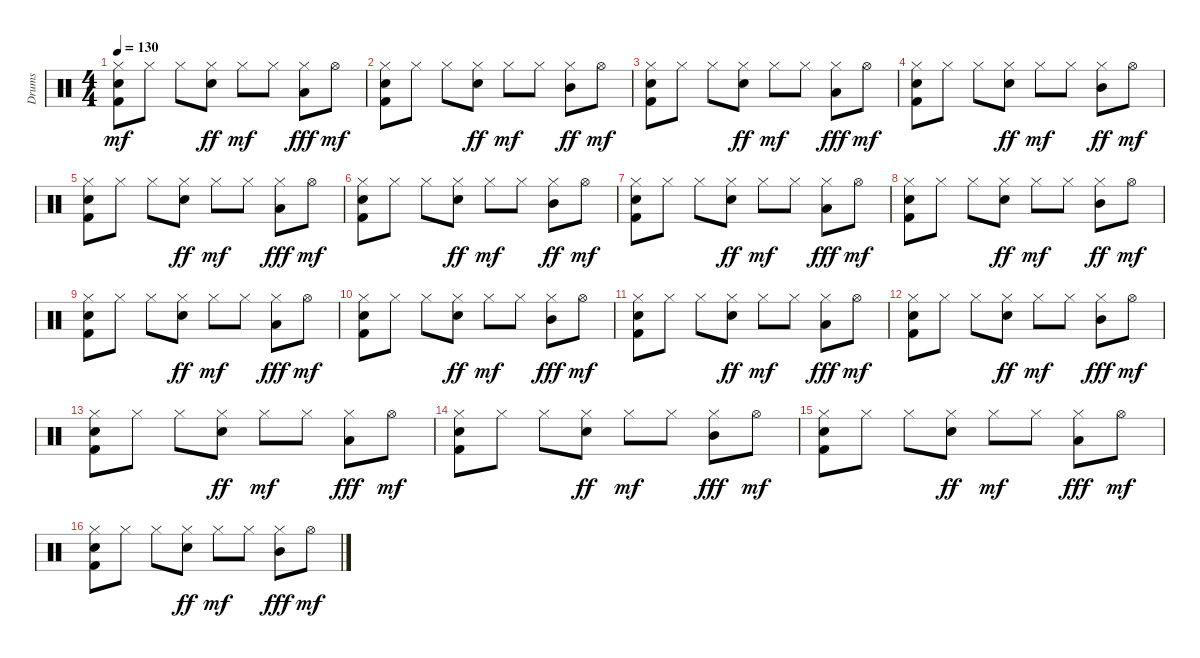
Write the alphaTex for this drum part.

\track ("Drums" "Drums") {instrument percussion}
\staff {score}
\articulation defaults
\ts (4 4)
\tempo 130
\clef neutral
\ks c
("Hi-Hat (closed)" "Snare (hit) 2" "Kick (hit) 2").8{dy mf} "Hi-Hat (closed)".8 "Hi-Hat (closed)".8 ("Hi-Hat (closed)" "Electric Snare (hit)").8{dy ff} "Hi-Hat (closed)".8{dy mf} "Hi-Hat (closed)".8 ("Hi-Hat (closed)" "Low Tom (hit)").8{dy fff} "Hi-Hat (open)".8{dy mf} |
("Hi-Hat (closed)" "Electric Snare (hit)" "Kick (hit) 2").8 "Hi-Hat (closed)".8 "Hi-Hat (closed)".8 ("Hi-Hat (closed)" "Electric Snare (hit)").8{dy ff} "Hi-Hat (closed)".8{dy mf} "Hi-Hat (closed)".8 ("Hi-Hat (closed)" "Mid Tom (hit)").8{dy ff} "Hi-Hat (open)".8{dy mf} |
("Hi-Hat (closed)" "Snare (hit) 2" "Kick (hit) 2").8 "Hi-Hat (closed)".8 "Hi-Hat (closed)".8 ("Hi-Hat (closed)" "Electric Snare (hit)").8{dy ff} "Hi-Hat (closed)".8{dy mf} "Hi-Hat (closed)".8 ("Hi-Hat (closed)" "Low Tom (hit)").8{dy fff} "Hi-Hat (open)".8{dy mf} |
("Hi-Hat (closed)" "Electric Snare (hit)" "Kick (hit) 2").8 "Hi-Hat (closed)".8 "Hi-Hat (closed)".8 ("Hi-Hat (closed)" "Electric Snare (hit)").8{dy ff} "Hi-Hat (closed)".8{dy mf} "Hi-Hat (closed)".8 ("Hi-Hat (closed)" "Mid Tom (hit)").8{dy ff} "Hi-Hat (open)".8{dy mf} |
("Hi-Hat (closed)" "Snare (hit) 2" "Kick (hit) 2").8 "Hi-Hat (closed)".8 "Hi-Hat (closed)".8 ("Hi-Hat (closed)" "Electric Snare (hit)").8{dy ff} "Hi-Hat (closed)".8{dy mf} "Hi-Hat (closed)".8 ("Hi-Hat (closed)" "Low Tom (hit)").8{dy fff} "Hi-Hat (open)".8{dy mf} |
("Hi-Hat (closed)" "Electric Snare (hit)" "Kick (hit) 2").8 "Hi-Hat (closed)".8 "Hi-Hat (closed)".8 ("Hi-Hat (closed)" "Electric Snare (hit)").8{dy ff} "Hi-Hat (closed)".8{dy mf} "Hi-Hat (closed)".8 ("Hi-Hat (closed)" "Mid Tom (hit)").8{dy ff} "Hi-Hat (open)".8{dy mf} |
("Hi-Hat (closed)" "Snare (hit) 2" "Kick (hit) 2").8 "Hi-Hat (closed)".8 "Hi-Hat (closed)".8 ("Hi-Hat (closed)" "Electric Snare (hit)").8{dy ff} "Hi-Hat (closed)".8{dy mf} "Hi-Hat (closed)".8 ("Hi-Hat (closed)" "Low Tom (hit)").8{dy fff} "Hi-Hat (open)".8{dy mf} |
("Hi-Hat (closed)" "Electric Snare (hit)" "Kick (hit) 2").8 "Hi-Hat (closed)".8 "Hi-Hat (closed)".8 ("Hi-Hat (closed)" "Electric Snare (hit)").8{dy ff} "Hi-Hat (closed)".8{dy mf} "Hi-Hat (closed)".8 ("Hi-Hat (closed)" "Mid Tom (hit)").8{dy ff} "Hi-Hat (open)".8{dy mf} |
("Hi-Hat (closed)" "Snare (hit) 2" "Kick (hit) 2").8 "Hi-Hat (closed)".8 "Hi-Hat (closed)".8 ("Hi-Hat (closed)" "Electric Snare (hit)").8{dy ff} "Hi-Hat (closed)".8{dy mf} "Hi-Hat (closed)".8 ("Hi-Hat (closed)" "Low Tom (hit)").8{dy fff} "Hi-Hat (open)".8{dy mf} |
("Hi-Hat (closed)" "Electric Snare (hit)" "Kick (hit) 2").8 "Hi-Hat (closed)".8 "Hi-Hat (closed)".8 ("Hi-Hat (closed)" "Electric Snare (hit)").8{dy ff} "Hi-Hat (closed)".8{dy mf} "Hi-Hat (closed)".8 ("Hi-Hat (closed)" "Mid Tom (hit)").8{dy fff} "Hi-Hat (open)".8{dy mf} |
("Hi-Hat (closed)" "Snare (hit) 2" "Kick (hit) 2").8 "Hi-Hat (closed)".8 "Hi-Hat (closed)".8 ("Hi-Hat (closed)" "Electric Snare (hit)").8{dy ff} "Hi-Hat (closed)".8{dy mf} "Hi-Hat (closed)".8 ("Hi-Hat (closed)" "Low Tom (hit)").8{dy fff} "Hi-Hat (open)".8{dy mf} |
("Hi-Hat (closed)" "Electric Snare (hit)" "Kick (hit) 2").8 "Hi-Hat (closed)".8 "Hi-Hat (closed)".8 ("Hi-Hat (closed)" "Electric Snare (hit)").8{dy ff} "Hi-Hat (closed)".8{dy mf} "Hi-Hat (closed)".8 ("Hi-Hat (closed)" "Mid Tom (hit)").8{dy fff} "Hi-Hat (open)".8{dy mf} |
("Hi-Hat (closed)" "Snare (hit) 2" "Kick (hit) 2").8 "Hi-Hat (closed)".8 "Hi-Hat (closed)".8 ("Hi-Hat (closed)" "Electric Snare (hit)").8{dy ff} "Hi-Hat (closed)".8{dy mf} "Hi-Hat (closed)".8 ("Hi-Hat (closed)" "Low Tom (hit)").8{dy fff} "Hi-Hat (open)".8{dy mf} |
("Hi-Hat (closed)" "Electric Snare (hit)" "Kick (hit) 2").8 "Hi-Hat (closed)".8 "Hi-Hat (closed)".8 ("Hi-Hat (closed)" "Electric Snare (hit)").8{dy ff} "Hi-Hat (closed)".8{dy mf} "Hi-Hat (closed)".8 ("Hi-Hat (closed)" "Mid Tom (hit)").8{dy fff} "Hi-Hat (open)".8{dy mf} |
("Hi-Hat (closed)" "Snare (hit) 2" "Kick (hit) 2").8 "Hi-Hat (closed)".8 "Hi-Hat (closed)".8 ("Hi-Hat (closed)" "Electric Snare (hit)").8{dy ff} "Hi-Hat (closed)".8{dy mf} "Hi-Hat (closed)".8 ("Hi-Hat (closed)" "Low Tom (hit)").8{dy fff} "Hi-Hat (open)".8{dy mf} |
("Hi-Hat (closed)" "Electric Snare (hit)" "Kick (hit) 2").8 "Hi-Hat (closed)".8 "Hi-Hat (closed)".8 ("Hi-Hat (closed)" "Electric Snare (hit)").8{dy ff} "Hi-Hat (closed)".8{dy mf} "Hi-Hat (closed)".8 ("Hi-Hat (closed)" "Mid Tom (hit)").8{dy fff} "Hi-Hat (open)".8{dy mf}
